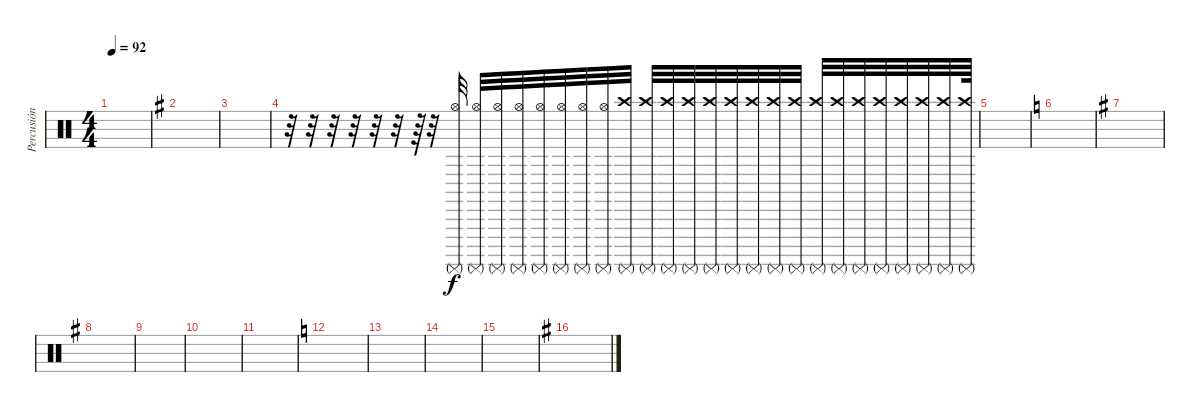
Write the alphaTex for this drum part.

\track ("Percusión Pista Auxiliar" "Percusión ") {instrument percussion}
\staff {score}
\articulation defaults
\ts (4 4)
\tempo 92
\clef neutral
\ks c
|
\ks g
|
|
r.32 r.32 r.32 r.32 r.32 r.32 r.64{volume 3} r.32{volume 13} ("Surdo (mute)" "Hi-Hat (open)").32 ("Surdo (mute)" "Hi-Hat (open)").32 ("Surdo (mute)" "Hi-Hat (open)").32 ("Surdo (mute)" "Hi-Hat (open)").32 ("Surdo (mute)" "Hi-Hat (open)").32 ("Surdo (mute)" "Hi-Hat (open)").32 ("Surdo (mute)" "Hi-Hat (open)").32 ("Surdo (mute)" "Hi-Hat (open)").32 ("Surdo (mute)" "Crash high (hit)").32 ("Surdo (mute)" "Crash high (hit)").32 ("Surdo (mute)" "Crash high (hit)").32 ("Surdo (mute)" "Crash high (hit)").32 ("Surdo (mute)" "Crash high (hit)").32 ("Surdo (mute)" "Crash high (hit)").32 ("Surdo (mute)" "Crash high (hit)").32 ("Surdo (mute)" "Crash high (hit)").32 ("Surdo (mute)" "Crash high (hit)").32 ("Surdo (mute)" "Crash high (hit)").32 ("Surdo (mute)" "Crash high (hit)").32 ("Surdo (mute)" "Crash high (hit)").32 ("Surdo (mute)" "Crash high (hit)").32 ("Surdo (mute)" "Crash high (hit)").32 ("Surdo (mute)" "Crash high (hit)").32 ("Surdo (mute)" "Crash high (hit)").32 ("Surdo (mute)" "Crash high (hit)").64 |
|
\ks c
|
\ks g
|
|
|
|
|
\ks c
|
|
|
|
\ks g
